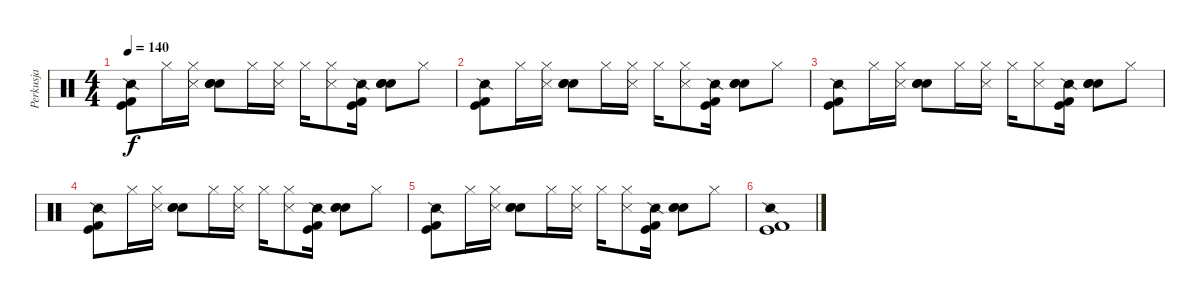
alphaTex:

\track ("Perkusja" "Perkusja") {instrument percussion}
\staff {score}
\articulation defaults
\ts (4 4)
\tempo 140
\clef neutral
\ks c
("Kick (hit)" "Kick (hit) 2" "Snare (side stick) 2").8{dy f} "Hi-Hat (closed)".16 ("Hi-Hat (closed)" "Snare (side stick) 3").16 ("Snare (hit) 2" "Electric Snare (hit)" "Hand Clap (hit)").8 "Hi-Hat (closed)".16 ("Hi-Hat (closed)" "Snare (side stick) 3").16 "Hi-Hat (closed)".16 ("Hi-Hat (closed)" "Snare (side stick) 3").8 ("Kick (hit)" "Kick (hit) 2" "Snare (side stick) 2").16 ("Snare (hit) 2" "Electric Snare (hit)" "Hand Clap (hit)").8 "Hi-Hat (closed)".8 |
("Kick (hit)" "Kick (hit) 2" "Snare (side stick) 2").8 "Hi-Hat (closed)".16 ("Hi-Hat (closed)" "Snare (side stick) 3").16 ("Snare (hit) 2" "Electric Snare (hit)" "Hand Clap (hit)").8 "Hi-Hat (closed)".16 ("Hi-Hat (closed)" "Snare (side stick) 3").16 "Hi-Hat (closed)".16 ("Hi-Hat (closed)" "Snare (side stick) 3").8 ("Kick (hit)" "Kick (hit) 2" "Snare (side stick) 2").16 ("Snare (hit) 2" "Electric Snare (hit)" "Hand Clap (hit)").8 "Hi-Hat (closed)".8 |
("Kick (hit)" "Kick (hit) 2" "Snare (side stick) 2").8 "Hi-Hat (closed)".16 ("Hi-Hat (closed)" "Snare (side stick) 3").16 ("Snare (hit) 2" "Electric Snare (hit)" "Hand Clap (hit)").8 "Hi-Hat (closed)".16 ("Hi-Hat (closed)" "Snare (side stick) 3").16 "Hi-Hat (closed)".16 ("Hi-Hat (closed)" "Snare (side stick) 3").8 ("Kick (hit)" "Kick (hit) 2" "Snare (side stick) 2").16 ("Snare (hit) 2" "Electric Snare (hit)" "Hand Clap (hit)").8 "Hi-Hat (closed)".8 |
("Kick (hit)" "Kick (hit) 2" "Snare (side stick) 2").8 "Hi-Hat (closed)".16 ("Hi-Hat (closed)" "Snare (side stick) 3").16 ("Snare (hit) 2" "Electric Snare (hit)" "Hand Clap (hit)").8 "Hi-Hat (closed)".16 ("Hi-Hat (closed)" "Snare (side stick) 3").16 "Hi-Hat (closed)".16 ("Hi-Hat (closed)" "Snare (side stick) 3").8 ("Kick (hit)" "Kick (hit) 2" "Snare (side stick) 2").16 ("Snare (hit) 2" "Electric Snare (hit)" "Hand Clap (hit)").8 "Hi-Hat (closed)".8 |
("Kick (hit)" "Kick (hit) 2" "Snare (side stick) 2").8 "Hi-Hat (closed)".16 ("Hi-Hat (closed)" "Snare (side stick) 3").16 ("Snare (hit) 2" "Electric Snare (hit)" "Hand Clap (hit)").8 "Hi-Hat (closed)".16 ("Hi-Hat (closed)" "Snare (side stick) 3").16 "Hi-Hat (closed)".16 ("Hi-Hat (closed)" "Snare (side stick) 3").8 ("Kick (hit)" "Kick (hit) 2" "Snare (side stick) 2").16 ("Snare (hit) 2" "Electric Snare (hit)" "Hand Clap (hit)").8 "Hi-Hat (closed)".8 |
("Kick (hit)" "Kick (hit) 2" "Snare (side stick) 2").1
